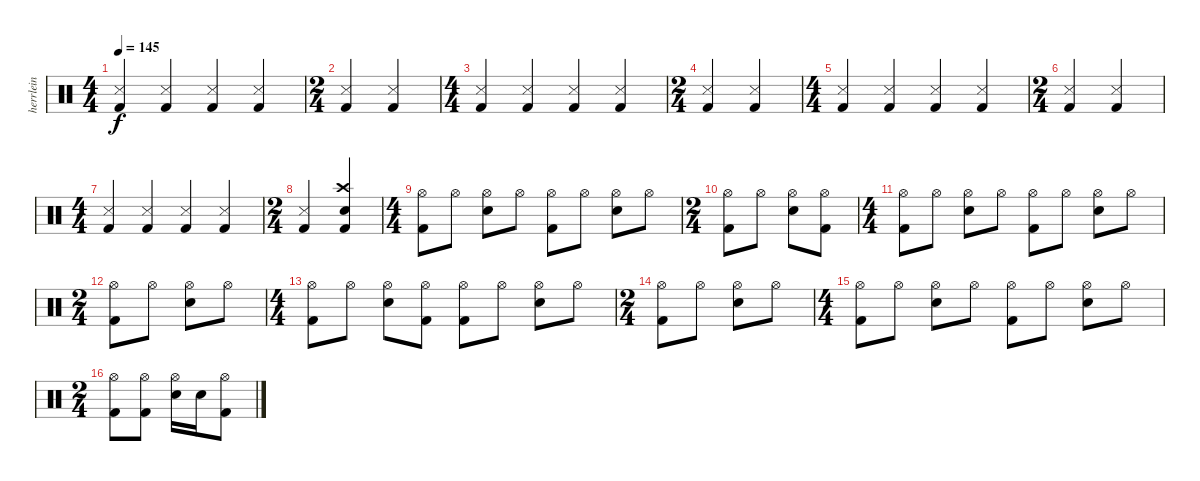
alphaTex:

\track ("herrlein" "herrlein") {instrument percussion}
\staff {score}
\articulation defaults
\ts (4 4)
\tempo 145
\clef neutral
\ks c
("Snare (side stick) 3" "Kick (hit) 2").4{dy f} ("Snare (side stick) 3" "Kick (hit) 2").4 ("Snare (side stick) 3" "Kick (hit) 2").4 ("Snare (side stick) 3" "Kick (hit) 2").4 |
\ts (2 4)
("Snare (side stick) 3" "Kick (hit) 2").4 ("Snare (side stick) 3" "Kick (hit) 2").4 |
\ts (4 4)
("Snare (side stick) 3" "Kick (hit) 2").4 ("Snare (side stick) 3" "Kick (hit) 2").4 ("Snare (side stick) 3" "Kick (hit) 2").4 ("Snare (side stick) 3" "Kick (hit) 2").4 |
\ts (2 4)
("Snare (side stick) 3" "Kick (hit) 2").4 ("Snare (side stick) 3" "Kick (hit) 2").4 |
\ts (4 4)
("Snare (side stick) 3" "Kick (hit) 2").4 ("Snare (side stick) 3" "Kick (hit) 2").4 ("Snare (side stick) 3" "Kick (hit) 2").4 ("Snare (side stick) 3" "Kick (hit) 2").4 |
\ts (2 4)
("Snare (side stick) 3" "Kick (hit) 2").4 ("Snare (side stick) 3" "Kick (hit) 2").4 |
\ts (4 4)
("Snare (side stick) 3" "Kick (hit) 2").4 ("Snare (side stick) 3" "Kick (hit) 2").4 ("Snare (side stick) 3" "Kick (hit) 2").4 ("Snare (side stick) 3" "Kick (hit) 2").4 |
\ts (2 4)
("Snare (side stick) 3" "Kick (hit) 2").4 ("Crash high (hit)" "Snare (hit) 2" "Kick (hit) 2").4 |
\ts (4 4)
("Kick (hit) 2" "Hi-Hat (open)").8 "Hi-Hat (open)".8 ("Hi-Hat (open)" "Snare (hit) 2").8 "Hi-Hat (open)".8 ("Kick (hit) 2" "Hi-Hat (open)").8 "Hi-Hat (open)".8 ("Hi-Hat (open)" "Snare (hit) 2").8 "Hi-Hat (open)".8 |
\ts (2 4)
("Kick (hit) 2" "Hi-Hat (open)").8 "Hi-Hat (open)".8 ("Hi-Hat (open)" "Snare (hit) 2").8 ("Kick (hit) 2" "Hi-Hat (open)").8 |
\ts (4 4)
("Kick (hit) 2" "Hi-Hat (open)").8 "Hi-Hat (open)".8 ("Hi-Hat (open)" "Snare (hit) 2").8 "Hi-Hat (open)".8 ("Kick (hit) 2" "Hi-Hat (open)").8 "Hi-Hat (open)".8 ("Hi-Hat (open)" "Snare (hit) 2").8 "Hi-Hat (open)".8 |
\ts (2 4)
("Kick (hit) 2" "Hi-Hat (open)").8 "Hi-Hat (open)".8 ("Hi-Hat (open)" "Snare (hit) 2").8 "Hi-Hat (open)".8 |
\ts (4 4)
("Kick (hit) 2" "Hi-Hat (open)").8 "Hi-Hat (open)".8 ("Hi-Hat (open)" "Snare (hit) 2").8 ("Kick (hit) 2" "Hi-Hat (open)").8 ("Kick (hit) 2" "Hi-Hat (open)").8 "Hi-Hat (open)".8 ("Hi-Hat (open)" "Snare (hit) 2").8 "Hi-Hat (open)".8 |
\ts (2 4)
("Kick (hit) 2" "Hi-Hat (open)").8 "Hi-Hat (open)".8 ("Hi-Hat (open)" "Snare (hit) 2").8 "Hi-Hat (open)".8 |
\ts (4 4)
("Kick (hit) 2" "Hi-Hat (open)").8 "Hi-Hat (open)".8 ("Hi-Hat (open)" "Snare (hit) 2").8 "Hi-Hat (open)".8 ("Kick (hit) 2" "Hi-Hat (open)").8 "Hi-Hat (open)".8 ("Hi-Hat (open)" "Snare (hit) 2").8 "Hi-Hat (open)".8 |
\ts (2 4)
("Kick (hit) 2" "Hi-Hat (open)").8 ("Kick (hit) 2" "Hi-Hat (open)").8 ("Hi-Hat (open)" "Snare (hit) 2").16 "Snare (hit) 2".16 ("Kick (hit) 2" "Hi-Hat (open)").8
